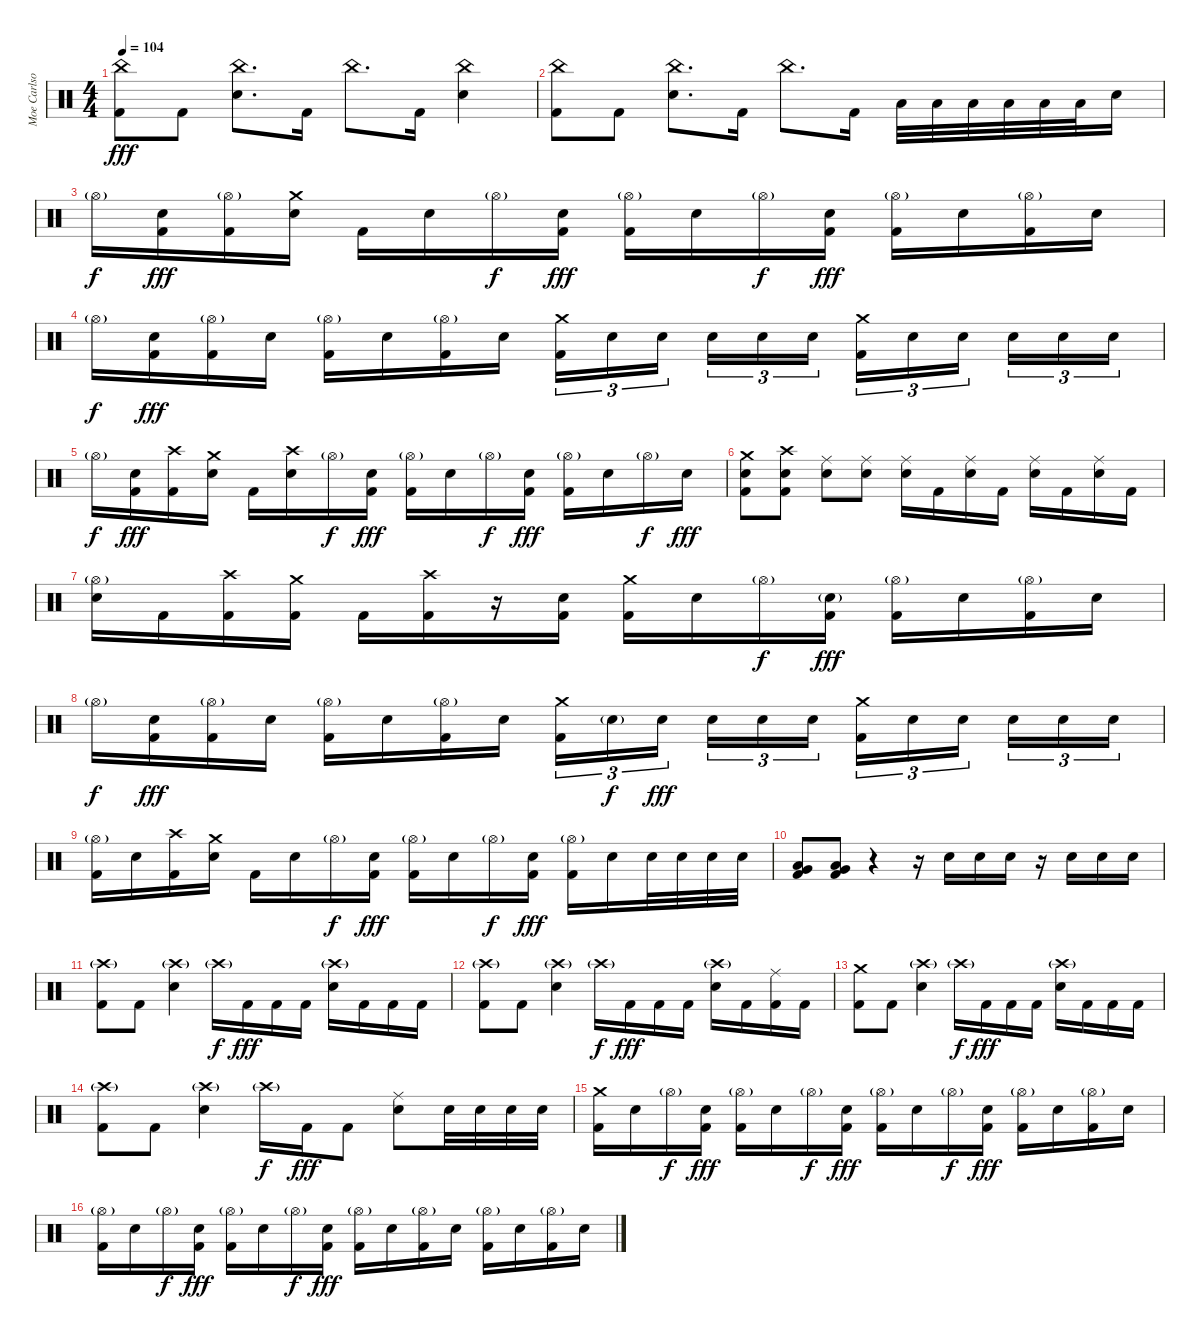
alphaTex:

\track ("Moe Carlson" "Moe Carlso") {instrument percussion}
\staff {score}
\articulation defaults
\ts (4 4)
\tempo 104
\clef neutral
\ks c
("China (hit)" "Kick (hit) 2").8{dy fff} "Kick (hit) 2".8 ("China (hit)" "Electric Snare (hit)").8{d} "Kick (hit) 2".16 "China (hit)".8{d} "Kick (hit) 2".16 ("China (hit)" "Electric Snare (hit)").4 |
("China (hit)" "Kick (hit) 2").8 "Kick (hit) 2".8 ("China (hit)" "Electric Snare (hit)").8{d} "Kick (hit) 2".16 "China (hit)".8{d} "Kick (hit) 2".16 "Low Tom (hit)".32 "Low Tom (hit)".32 "Low Tom (hit)".32 "Low Tom (hit)".32 "Low Tom (hit)".32 "Low Tom (hit)".32 "Electric Snare (hit)".16 |
"Hi-Hat (open)"{g}.16{dy f} ("Electric Snare (hit)" "Kick (hit) 2").16{dy fff} ("Hi-Hat (open)"{g} "Kick (hit) 2").16 ("Crash medium (hit)" "Electric Snare (hit)").16 "Kick (hit) 2".16 "Electric Snare (hit)".16 "Hi-Hat (open)"{g}.16{dy f} ("Electric Snare (hit)" "Kick (hit) 2").16{dy fff} ("Hi-Hat (open)"{g} "Kick (hit) 2").16 "Electric Snare (hit)".16 "Hi-Hat (open)"{g}.16{dy f} ("Electric Snare (hit)" "Kick (hit) 2").16{dy fff} ("Hi-Hat (open)"{g} "Kick (hit) 2").16 "Electric Snare (hit)".16 ("Hi-Hat (open)"{g} "Kick (hit) 2").16 "Electric Snare (hit)".16 |
"Hi-Hat (open)"{g}.16{dy f} ("Electric Snare (hit)" "Kick (hit) 2").16{dy fff} ("Hi-Hat (open)"{g} "Kick (hit) 2").16 "Electric Snare (hit)".16 ("Hi-Hat (open)"{g} "Kick (hit) 2").16 "Electric Snare (hit)".16 ("Hi-Hat (open)"{g} "Kick (hit) 2").16 "Electric Snare (hit)".16 ("Crash medium (hit)" "Kick (hit) 2").16{tu (3 2)} "Electric Snare (hit)".16{tu (3 2)} "Electric Snare (hit)".16{tu (3 2) beam splitsecondary} "Electric Snare (hit)".16{tu (3 2)} "Electric Snare (hit)".16{tu (3 2)} "Electric Snare (hit)".16{tu (3 2)} ("Crash medium (hit)" "Kick (hit) 2").16{tu (3 2)} "Electric Snare (hit)".16{tu (3 2)} "Electric Snare (hit)".16{tu (3 2) beam splitsecondary} "Electric Snare (hit)".16{tu (3 2)} "Electric Snare (hit)".16{tu (3 2)} "Electric Snare (hit)".16{tu (3 2)} |
"Hi-Hat (open)"{g}.16{dy f} ("Electric Snare (hit)" "Kick (hit) 2").16{dy fff} ("Crash high (hit)" "Kick (hit) 2").16 ("Crash medium (hit)" "Electric Snare (hit)").16 "Kick (hit) 2".16 ("Crash high (hit)" "Electric Snare (hit)").16 "Hi-Hat (open)"{g}.16{dy f} ("Electric Snare (hit)" "Kick (hit) 2").16{dy fff} ("Hi-Hat (open)"{g} "Kick (hit) 2").16 "Electric Snare (hit)".16 "Hi-Hat (open)"{g}.16{dy f} ("Electric Snare (hit)" "Kick (hit) 2").16{dy fff} ("Hi-Hat (open)"{g} "Kick (hit) 2").16 "Electric Snare (hit)".16 "Hi-Hat (open)"{g}.16{dy f} "Electric Snare (hit)".16{dy fff} |
("Crash medium (hit)" "Electric Snare (hit)" "Kick (hit) 2").8 ("Crash high (hit)" "Electric Snare (hit)" "Kick (hit) 2").8 ("Ride (middle)" "Electric Snare (hit)").8 ("Ride (middle)" "Electric Snare (hit)").8 ("Ride (middle)" "Electric Snare (hit)").16 "Kick (hit) 2".16 ("Ride (middle)" "Electric Snare (hit)").16 "Kick (hit) 2".16 ("Ride (middle)" "Electric Snare (hit)").16 "Kick (hit) 2".16 ("Ride (middle)" "Electric Snare (hit)").16 "Kick (hit) 2".16 |
("Hi-Hat (open)"{g} "Electric Snare (hit)").16 "Kick (hit) 2".16 ("Crash high (hit)" "Kick (hit) 2").16 ("Crash medium (hit)" "Kick (hit) 2").16 "Kick (hit) 2".16 ("Crash high (hit)" "Kick (hit) 2").16 r.16 ("Electric Snare (hit)" "Kick (hit) 2").16 ("Crash medium (hit)" "Kick (hit) 2").16 "Electric Snare (hit)".16 "Hi-Hat (open)"{g}.16{dy f} ("Electric Snare (hit)"{g} "Kick (hit) 2").16{dy fff} ("Hi-Hat (open)"{g} "Kick (hit) 2").16 "Electric Snare (hit)".16 ("Hi-Hat (open)"{g} "Kick (hit) 2").16 "Electric Snare (hit)".16 |
"Hi-Hat (open)"{g}.16{dy f} ("Electric Snare (hit)" "Kick (hit) 2").16{dy fff} ("Hi-Hat (open)"{g} "Kick (hit) 2").16 "Electric Snare (hit)".16 ("Hi-Hat (open)"{g} "Kick (hit) 2").16 "Electric Snare (hit)".16 ("Hi-Hat (open)"{g} "Kick (hit) 2").16 "Electric Snare (hit)".16 ("Crash medium (hit)" "Kick (hit) 2").16{tu (3 2)} "Electric Snare (hit)"{g}.16{tu (3 2) dy f} "Electric Snare (hit)".16{tu (3 2) dy fff beam splitsecondary} "Electric Snare (hit)".16{tu (3 2)} "Electric Snare (hit)".16{tu (3 2)} "Electric Snare (hit)".16{tu (3 2)} ("Crash medium (hit)" "Kick (hit) 2").16{tu (3 2)} "Electric Snare (hit)".16{tu (3 2)} "Electric Snare (hit)".16{tu (3 2) beam splitsecondary} "Electric Snare (hit)".16{tu (3 2)} "Electric Snare (hit)".16{tu (3 2)} "Electric Snare (hit)".16{tu (3 2)} |
("Hi-Hat (open)"{g} "Kick (hit) 2").16 "Electric Snare (hit)".16 ("Crash high (hit)" "Kick (hit) 2").16 ("Crash medium (hit)" "Electric Snare (hit)").16 "Kick (hit) 2".16 "Electric Snare (hit)".16 "Hi-Hat (open)"{g}.16{dy f} ("Electric Snare (hit)" "Kick (hit) 2").16{dy fff} ("Hi-Hat (open)"{g} "Kick (hit) 2").16 "Electric Snare (hit)".16 "Hi-Hat (open)"{g}.16{dy f} ("Electric Snare (hit)" "Kick (hit) 2").16{dy fff} ("Hi-Hat (open)"{g} "Kick (hit) 2").16 "Electric Snare (hit)".16 "Electric Snare (hit)".32 "Electric Snare (hit)".32 "Electric Snare (hit)".32 "Electric Snare (hit)".32 |
("Very Low Tom (hit)" "Low Floor Tom (hit)" "Kick (hit) 2").8 ("Very Low Tom (hit)" "Low Floor Tom (hit)" "Kick (hit) 2").8 r.4 r.16 "Electric Snare (hit)".16 "Electric Snare (hit)".16 "Electric Snare (hit)".16 r.16 "Electric Snare (hit)".16 "Electric Snare (hit)".16 "Electric Snare (hit)".16 |
("Crash high (hit)"{g} "Kick (hit) 2").8 "Kick (hit) 2".8 ("Crash high (hit)"{g} "Electric Snare (hit)").4 "Crash high (hit)"{g}.16{dy f} "Kick (hit) 2".16{dy fff} "Kick (hit) 2".16 "Kick (hit) 2".16 ("Crash high (hit)"{g} "Electric Snare (hit)").16 "Kick (hit) 2".16 "Kick (hit) 2".16 "Kick (hit) 2".16 |
("Crash high (hit)"{g} "Kick (hit) 2").8 "Kick (hit) 2".8 ("Crash high (hit)"{g} "Electric Snare (hit)").4 "Crash high (hit)"{g}.16{dy f} "Kick (hit) 2".16{dy fff} "Kick (hit) 2".16 "Kick (hit) 2".16 ("Crash high (hit)"{g} "Electric Snare (hit)").16 "Kick (hit) 2".16 ("Ride (middle)" "Kick (hit) 2").16 "Kick (hit) 2".16 |
("Crash medium (hit)" "Kick (hit) 2").8 "Kick (hit) 2".8 ("Crash high (hit)"{g} "Electric Snare (hit)").4 "Crash high (hit)"{g}.16{dy f} "Kick (hit) 2".16{dy fff} "Kick (hit) 2".16 "Kick (hit) 2".16 ("Crash high (hit)"{g} "Electric Snare (hit)").16 "Kick (hit) 2".16 "Kick (hit) 2".16 "Kick (hit) 2".16 |
("Crash high (hit)"{g} "Kick (hit) 2").8 "Kick (hit) 2".8 ("Crash high (hit)"{g} "Electric Snare (hit)").4 "Crash high (hit)"{g}.16{dy f} "Kick (hit) 2".16{dy fff} "Kick (hit) 2".8 ("Ride (middle)" "Electric Snare (hit)").8 "Electric Snare (hit)".32 "Electric Snare (hit)".32 "Electric Snare (hit)".32 "Electric Snare (hit)".32 |
("Crash medium (hit)" "Kick (hit) 2").16 "Electric Snare (hit)".16 "Hi-Hat (open)"{g}.16{dy f} ("Electric Snare (hit)" "Kick (hit) 2").16{dy fff} ("Hi-Hat (open)"{g} "Kick (hit) 2").16 "Electric Snare (hit)".16 "Hi-Hat (open)"{g}.16{dy f} ("Electric Snare (hit)" "Kick (hit) 2").16{dy fff} ("Hi-Hat (open)"{g} "Kick (hit) 2").16 "Electric Snare (hit)".16 "Hi-Hat (open)"{g}.16{dy f} ("Electric Snare (hit)" "Kick (hit) 2").16{dy fff} ("Hi-Hat (open)"{g} "Kick (hit) 2").16 "Electric Snare (hit)".16 ("Hi-Hat (open)"{g} "Kick (hit) 2").16 "Electric Snare (hit)".16 |
("Hi-Hat (open)"{g} "Kick (hit) 2").16 "Electric Snare (hit)".16 "Hi-Hat (open)"{g}.16{dy f} ("Electric Snare (hit)" "Kick (hit) 2").16{dy fff} ("Hi-Hat (open)"{g} "Kick (hit) 2").16 "Electric Snare (hit)".16 "Hi-Hat (open)"{g}.16{dy f} ("Electric Snare (hit)" "Kick (hit) 2").16{dy fff} ("Hi-Hat (open)"{g} "Kick (hit) 2").16 "Electric Snare (hit)".16 ("Hi-Hat (open)"{g} "Kick (hit) 2").16 "Electric Snare (hit)".16 ("Hi-Hat (open)"{g} "Kick (hit) 2").16 "Electric Snare (hit)".16 ("Hi-Hat (open)"{g} "Kick (hit) 2").16 "Electric Snare (hit)".16
